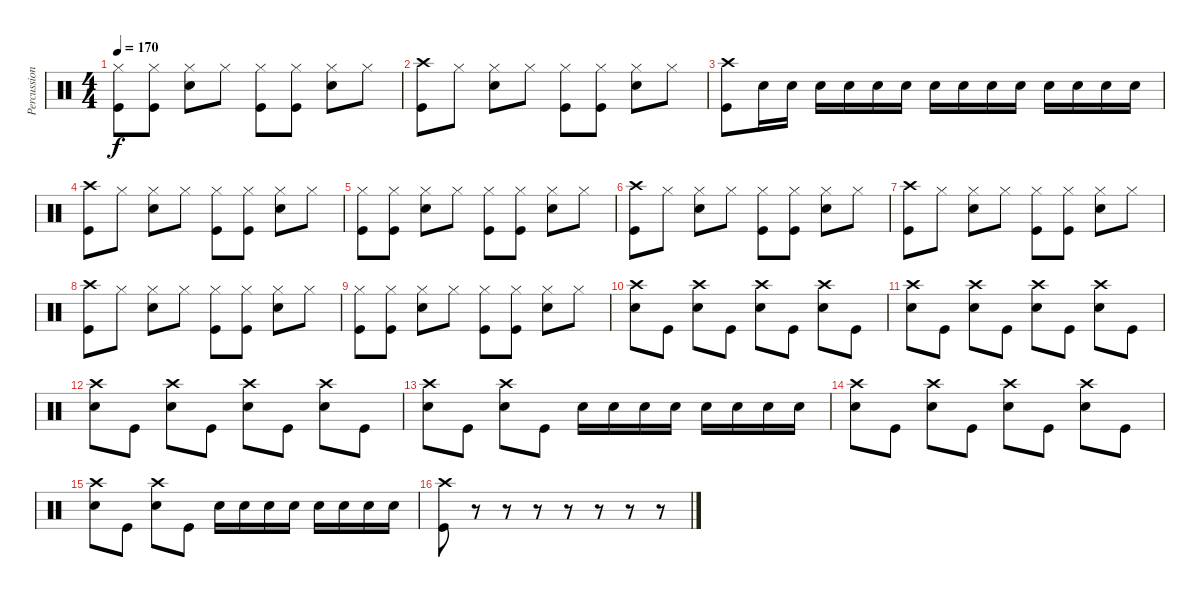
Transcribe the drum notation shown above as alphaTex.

\track ("Percussion" "Percussion") {instrument percussion}
\staff {score}
\articulation defaults
\ts (4 4)
\tempo 170
\clef neutral
\ks c
("Hi-Hat (closed)" "Kick (hit)").8{dy f} ("Hi-Hat (closed)" "Kick (hit)").8 ("Hi-Hat (closed)" "Snare (hit) 2").8 "Hi-Hat (closed)".8 ("Hi-Hat (closed)" "Kick (hit)").8 ("Hi-Hat (closed)" "Kick (hit)").8 ("Hi-Hat (closed)" "Snare (hit) 2").8 "Hi-Hat (closed)".8 |
("Crash high (hit)" "Kick (hit)").8 "Hi-Hat (closed)".8 ("Hi-Hat (closed)" "Snare (hit) 2").8 "Hi-Hat (closed)".8 ("Hi-Hat (closed)" "Kick (hit)").8 ("Hi-Hat (closed)" "Kick (hit)").8 ("Hi-Hat (closed)" "Snare (hit) 2").8 "Hi-Hat (closed)".8 |
("Crash high (hit)" "Kick (hit)").8 "Snare (hit) 2".16 "Snare (hit) 2".16 "Snare (hit) 2".16 "Snare (hit) 2".16 "Snare (hit) 2".16 "Snare (hit) 2".16 "Snare (hit) 2".16 "Snare (hit) 2".16 "Snare (hit) 2".16 "Snare (hit) 2".16 "Snare (hit) 2".16 "Snare (hit) 2".16 "Snare (hit) 2".16 "Snare (hit) 2".16 |
("Crash high (hit)" "Kick (hit)").8 "Hi-Hat (closed)".8 ("Hi-Hat (closed)" "Snare (hit) 2").8 "Hi-Hat (closed)".8 ("Hi-Hat (closed)" "Kick (hit)").8 ("Hi-Hat (closed)" "Kick (hit)").8 ("Hi-Hat (closed)" "Snare (hit) 2").8 "Hi-Hat (closed)".8 |
("Hi-Hat (closed)" "Kick (hit)").8 ("Hi-Hat (closed)" "Kick (hit)").8 ("Hi-Hat (closed)" "Snare (hit) 2").8 "Hi-Hat (closed)".8 ("Hi-Hat (closed)" "Kick (hit)").8 ("Hi-Hat (closed)" "Kick (hit)").8 ("Hi-Hat (closed)" "Snare (hit) 2").8 "Hi-Hat (closed)".8 |
("Crash high (hit)" "Kick (hit)").8 "Hi-Hat (closed)".8 ("Hi-Hat (closed)" "Snare (hit) 2").8 "Hi-Hat (closed)".8 ("Hi-Hat (closed)" "Kick (hit)").8 ("Hi-Hat (closed)" "Kick (hit)").8 ("Hi-Hat (closed)" "Snare (hit) 2").8 "Hi-Hat (closed)".8 |
("Crash high (hit)" "Kick (hit)").8 "Hi-Hat (closed)".8 ("Hi-Hat (closed)" "Snare (hit) 2").8 "Hi-Hat (closed)".8 ("Hi-Hat (closed)" "Kick (hit)").8 ("Hi-Hat (closed)" "Kick (hit)").8 ("Hi-Hat (closed)" "Snare (hit) 2").8 "Hi-Hat (closed)".8 |
("Crash high (hit)" "Kick (hit)").8 "Hi-Hat (closed)".8 ("Hi-Hat (closed)" "Snare (hit) 2").8 "Hi-Hat (closed)".8 ("Hi-Hat (closed)" "Kick (hit)").8 ("Hi-Hat (closed)" "Kick (hit)").8 ("Hi-Hat (closed)" "Snare (hit) 2").8 "Hi-Hat (closed)".8 |
("Hi-Hat (closed)" "Kick (hit)").8 ("Hi-Hat (closed)" "Kick (hit)").8 ("Hi-Hat (closed)" "Snare (hit) 2").8 "Hi-Hat (closed)".8 ("Hi-Hat (closed)" "Kick (hit)").8 ("Hi-Hat (closed)" "Kick (hit)").8 ("Hi-Hat (closed)" "Snare (hit) 2").8 "Hi-Hat (closed)".8 |
("Crash high (hit)" "Snare (hit) 2").8 "Kick (hit)".8 ("Crash high (hit)" "Snare (hit) 2").8 "Kick (hit)".8 ("Crash high (hit)" "Snare (hit) 2").8 "Kick (hit)".8 ("Crash high (hit)" "Snare (hit) 2").8 "Kick (hit)".8 |
("Crash high (hit)" "Snare (hit) 2").8 "Kick (hit)".8 ("Crash high (hit)" "Snare (hit) 2").8 "Kick (hit)".8 ("Crash high (hit)" "Snare (hit) 2").8 "Kick (hit)".8 ("Crash high (hit)" "Snare (hit) 2").8 "Kick (hit)".8 |
("Crash high (hit)" "Snare (hit) 2").8 "Kick (hit)".8 ("Crash high (hit)" "Snare (hit) 2").8 "Kick (hit)".8 ("Crash high (hit)" "Snare (hit) 2").8 "Kick (hit)".8 ("Crash high (hit)" "Snare (hit) 2").8 "Kick (hit)".8 |
("Crash high (hit)" "Snare (hit) 2").8 "Kick (hit)".8 ("Crash high (hit)" "Snare (hit) 2").8 "Kick (hit)".8 "Snare (hit) 2".16 "Snare (hit) 2".16 "Snare (hit) 2".16 "Snare (hit) 2".16 "Snare (hit) 2".16 "Snare (hit) 2".16 "Snare (hit) 2".16 "Snare (hit) 2".16 |
("Crash high (hit)" "Snare (hit) 2").8 "Kick (hit)".8 ("Crash high (hit)" "Snare (hit) 2").8 "Kick (hit)".8 ("Crash high (hit)" "Snare (hit) 2").8 "Kick (hit)".8 ("Crash high (hit)" "Snare (hit) 2").8 "Kick (hit)".8 |
("Crash high (hit)" "Snare (hit) 2").8 "Kick (hit)".8 ("Crash high (hit)" "Snare (hit) 2").8 "Kick (hit)".8 "Snare (hit) 2".16 "Snare (hit) 2".16 "Snare (hit) 2".16 "Snare (hit) 2".16 "Snare (hit) 2".16 "Snare (hit) 2".16 "Snare (hit) 2".16 "Snare (hit) 2".16 |
("Crash high (hit)" "Kick (hit)").8 r.8 r.8 r.8 r.8 r.8 r.8 r.8
